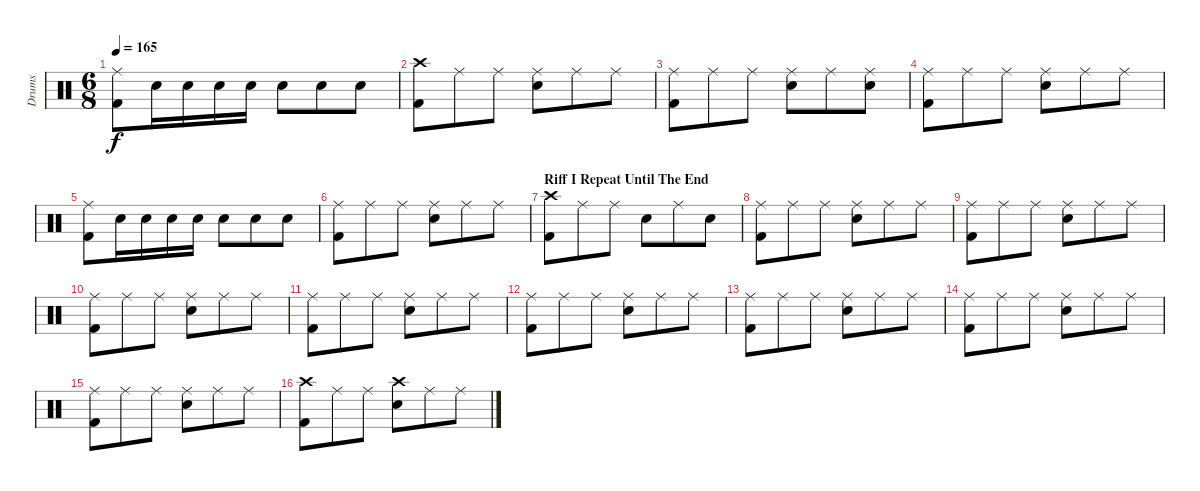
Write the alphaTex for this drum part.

\track ("Drums" "Drums") {instrument percussion}
\staff {score}
\articulation defaults
\ts (6 8)
\tempo 165
\clef neutral
\ks c
("Ride (middle)" "Kick (hit) 2").8{dy f} "Electric Snare (hit)".16 "Electric Snare (hit)".16 "Electric Snare (hit)".16 "Electric Snare (hit)".16 "Electric Snare (hit)".8 "Electric Snare (hit)".8 "Electric Snare (hit)".8 |
("Crash high (hit)" "Kick (hit) 2").8 "Ride (middle)".8 "Ride (middle)".8 ("Ride (middle)" "Electric Snare (hit)").8 "Ride (middle)".8 "Ride (middle)".8 |
("Ride (middle)" "Kick (hit) 2").8 "Ride (middle)".8 "Ride (middle)".8 ("Ride (middle)" "Electric Snare (hit)").8 "Ride (middle)".8 ("Ride (middle)" "Electric Snare (hit)").8 |
("Ride (middle)" "Kick (hit) 2").8 "Ride (middle)".8 "Ride (middle)".8 ("Ride (middle)" "Electric Snare (hit)").8 "Ride (middle)".8 "Ride (middle)".8 |
("Ride (middle)" "Kick (hit) 2").8 "Electric Snare (hit)".16 "Electric Snare (hit)".16 "Electric Snare (hit)".16 "Electric Snare (hit)".16 "Electric Snare (hit)".8 "Electric Snare (hit)".8 "Electric Snare (hit)".8 |
("Ride (middle)" "Kick (hit) 2").8 "Ride (middle)".8 "Ride (middle)".8 ("Ride (middle)" "Electric Snare (hit)").8 "Ride (middle)".8 "Ride (middle)".8 |
\section ("" "Riff I Repeat Until The End")
("Crash high (hit)" "Kick (hit) 2").8 "Ride (middle)".8 "Ride (middle)".8 "Electric Snare (hit)".8 "Ride (middle)".8 "Electric Snare (hit)".8 |
("Ride (middle)" "Kick (hit) 2").8 "Ride (middle)".8 "Ride (middle)".8 ("Ride (middle)" "Electric Snare (hit)").8 "Ride (middle)".8 "Ride (middle)".8 |
("Ride (middle)" "Kick (hit) 2").8 "Ride (middle)".8 "Ride (middle)".8 ("Ride (middle)" "Electric Snare (hit)").8 "Ride (middle)".8 "Ride (middle)".8 |
("Ride (middle)" "Kick (hit) 2").8 "Ride (middle)".8 "Ride (middle)".8 ("Ride (middle)" "Electric Snare (hit)").8 "Ride (middle)".8 "Ride (middle)".8 |
("Ride (middle)" "Kick (hit) 2").8 "Ride (middle)".8 "Ride (middle)".8 ("Ride (middle)" "Electric Snare (hit)").8 "Ride (middle)".8 "Ride (middle)".8 |
("Ride (middle)" "Kick (hit) 2").8 "Ride (middle)".8 "Ride (middle)".8 ("Ride (middle)" "Electric Snare (hit)").8 "Ride (middle)".8 "Ride (middle)".8 |
("Ride (middle)" "Kick (hit) 2").8 "Ride (middle)".8 "Ride (middle)".8 ("Ride (middle)" "Electric Snare (hit)").8 "Ride (middle)".8 "Ride (middle)".8 |
("Ride (middle)" "Kick (hit) 2").8 "Ride (middle)".8 "Ride (middle)".8 ("Ride (middle)" "Electric Snare (hit)").8 "Ride (middle)".8 "Ride (middle)".8 |
("Ride (middle)" "Kick (hit) 2").8 "Ride (middle)".8 "Ride (middle)".8 ("Ride (middle)" "Electric Snare (hit)").8 "Ride (middle)".8 "Ride (middle)".8 |
("Crash high (hit)" "Kick (hit) 2").8 "Ride (middle)".8 "Ride (middle)".8 ("Crash high (hit)" "Electric Snare (hit)").8 "Ride (middle)".8 "Ride (middle)".8
